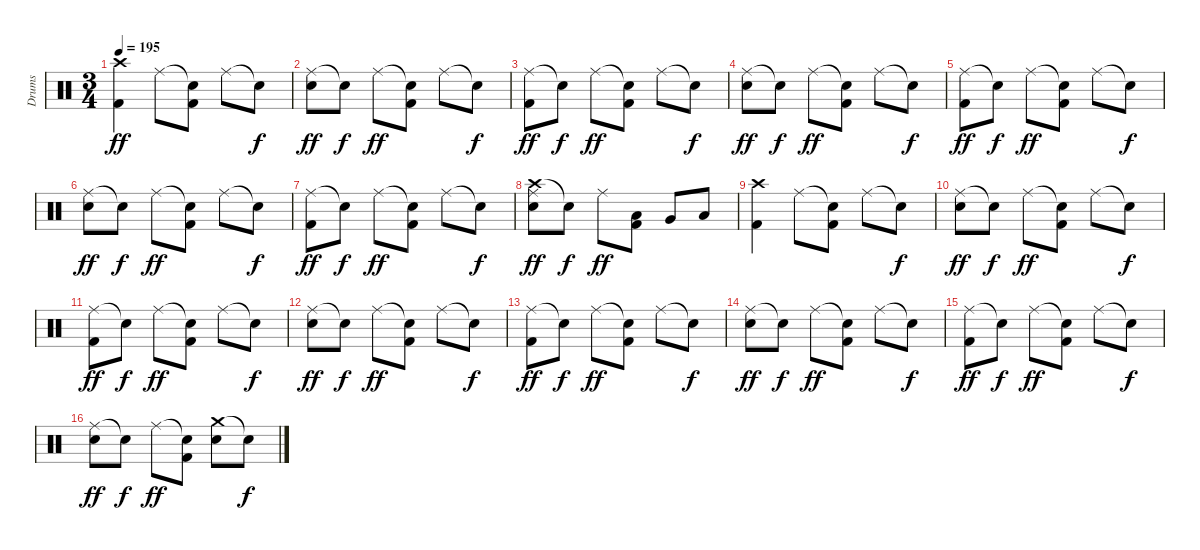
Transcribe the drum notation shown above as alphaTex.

\track ("Drums" "Drums") {instrument percussion}
\staff {score}
\articulation defaults
\ts (3 4)
\tempo 195
\clef neutral
\ks c
("Crash high (hit)" "Kick (hit) 2").4{dy ff} "Ride (middle)".8 ("Snare (hit)"{t} "Kick (hit) 2").8 "Ride (middle)".8 "Snare (hit)"{t}.8{dy f} |
("Ride (middle)" "Electric Snare (hit)").8{dy ff} "Snare (hit)"{t}.8{dy f} "Ride (middle)".8{dy ff} ("Snare (hit)"{t} "Kick (hit) 2").8 "Ride (middle)".8 "Snare (hit)"{t}.8{dy f} |
("Ride (middle)" "Kick (hit) 2").8{dy ff} "Snare (hit)"{t}.8{dy f} "Ride (middle)".8{dy ff} ("Snare (hit)"{t} "Kick (hit) 2").8 "Ride (middle)".8 "Snare (hit)"{t}.8{dy f} |
("Ride (middle)" "Electric Snare (hit)").8{dy ff} "Snare (hit)"{t}.8{dy f} "Ride (middle)".8{dy ff} ("Snare (hit)"{t} "Kick (hit) 2").8 "Ride (middle)".8 "Snare (hit)"{t}.8{dy f} |
("Ride (middle)" "Kick (hit) 2").8{dy ff} "Snare (hit)"{t}.8{dy f} "Ride (middle)".8{dy ff} ("Snare (hit)"{t} "Kick (hit) 2").8 "Ride (middle)".8 "Snare (hit)"{t}.8{dy f} |
("Ride (middle)" "Electric Snare (hit)").8{dy ff} "Snare (hit)"{t}.8{dy f} "Ride (middle)".8{dy ff} ("Snare (hit)"{t} "Kick (hit) 2").8 "Ride (middle)".8 "Snare (hit)"{t}.8{dy f} |
("Ride (middle)" "Kick (hit) 2").8{dy ff} "Snare (hit)"{t}.8{dy f} "Ride (middle)".8{dy ff} ("Snare (hit)"{t} "Kick (hit) 2").8 "Ride (middle)".8 "Snare (hit)"{t}.8{dy f} |
("Crash high (hit)" "Ride (middle)" "Electric Snare (hit)").8{dy ff} "Snare (hit)"{t}.8{dy f} "Ride (middle)".8{dy ff} ("Low Tom (hit)" "Kick (hit) 2").8 "Very Low Tom (hit)".8 "Low Floor Tom (hit)".8 |
("Crash high (hit)" "Kick (hit) 2").4 "Ride (middle)".8 ("Snare (hit)"{t} "Kick (hit) 2").8 "Ride (middle)".8 "Snare (hit)"{t}.8{dy f} |
("Ride (middle)" "Electric Snare (hit)").8{dy ff} "Snare (hit)"{t}.8{dy f} "Ride (middle)".8{dy ff} ("Snare (hit)"{t} "Kick (hit) 2").8 "Ride (middle)".8 "Snare (hit)"{t}.8{dy f} |
("Ride (middle)" "Kick (hit) 2").8{dy ff} "Snare (hit)"{t}.8{dy f} "Ride (middle)".8{dy ff} ("Snare (hit)"{t} "Kick (hit) 2").8 "Ride (middle)".8 "Snare (hit)"{t}.8{dy f} |
("Ride (middle)" "Electric Snare (hit)").8{dy ff} "Snare (hit)"{t}.8{dy f} "Ride (middle)".8{dy ff} ("Snare (hit)"{t} "Kick (hit) 2").8 "Ride (middle)".8 "Snare (hit)"{t}.8{dy f} |
("Ride (middle)" "Kick (hit) 2").8{dy ff} "Snare (hit)"{t}.8{dy f} "Ride (middle)".8{dy ff} ("Snare (hit)"{t} "Kick (hit) 2").8 "Ride (middle)".8 "Snare (hit)"{t}.8{dy f} |
("Ride (middle)" "Electric Snare (hit)").8{dy ff} "Snare (hit)"{t}.8{dy f} "Ride (middle)".8{dy ff} ("Snare (hit)"{t} "Kick (hit) 2").8 "Ride (middle)".8 "Snare (hit)"{t}.8{dy f} |
("Ride (middle)" "Kick (hit) 2").8{dy ff} "Snare (hit)"{t}.8{dy f} "Ride (middle)".8{dy ff} ("Snare (hit)"{t} "Kick (hit) 2").8 "Ride (middle)".8 "Snare (hit)"{t}.8{dy f} |
("Ride (middle)" "Electric Snare (hit)").8{dy ff} "Snare (hit)"{t}.8{dy f} "Ride (middle)".8{dy ff} ("Snare (hit)"{t} "Kick (hit) 2").8 ("Crash medium (hit)" "Electric Snare (hit)").8 "Snare (hit)"{t}.8{dy f}
